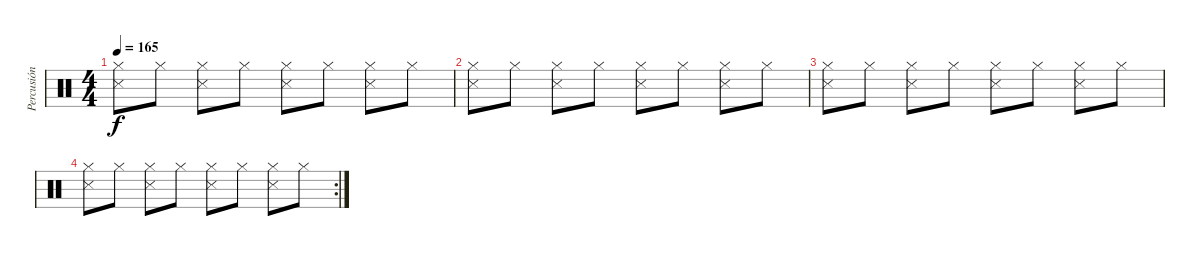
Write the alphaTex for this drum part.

\track ("Percusión" "Percusión") {instrument percussion}
\staff {score}
\articulation defaults
\ts (4 4)
\tempo 165
\clef neutral
\ks c
("Hi-Hat (closed)" "Snare (side stick) 3").8{dy f} "Hi-Hat (closed)".8 ("Hi-Hat (closed)" "Snare (side stick) 3").8 "Hi-Hat (closed)".8 ("Hi-Hat (closed)" "Snare (side stick) 3").8 "Hi-Hat (closed)".8 ("Hi-Hat (closed)" "Snare (side stick) 3").8 "Hi-Hat (closed)".8 |
("Hi-Hat (closed)" "Snare (side stick) 3").8 "Hi-Hat (closed)".8 ("Hi-Hat (closed)" "Snare (side stick) 3").8 "Hi-Hat (closed)".8 ("Hi-Hat (closed)" "Snare (side stick) 3").8 "Hi-Hat (closed)".8 ("Hi-Hat (closed)" "Snare (side stick) 3").8 "Hi-Hat (closed)".8 |
("Hi-Hat (closed)" "Snare (side stick) 3").8 "Hi-Hat (closed)".8 ("Hi-Hat (closed)" "Snare (side stick) 3").8 "Hi-Hat (closed)".8 ("Hi-Hat (closed)" "Snare (side stick) 3").8 "Hi-Hat (closed)".8 ("Hi-Hat (closed)" "Snare (side stick) 3").8 "Hi-Hat (closed)".8 |
\rc 2
("Hi-Hat (closed)" "Snare (side stick) 3").8 "Hi-Hat (closed)".8 ("Hi-Hat (closed)" "Snare (side stick) 3").8 "Hi-Hat (closed)".8 ("Hi-Hat (closed)" "Snare (side stick) 3").8 "Hi-Hat (closed)".8 ("Hi-Hat (closed)" "Snare (side stick) 3").8 "Hi-Hat (closed)".8
